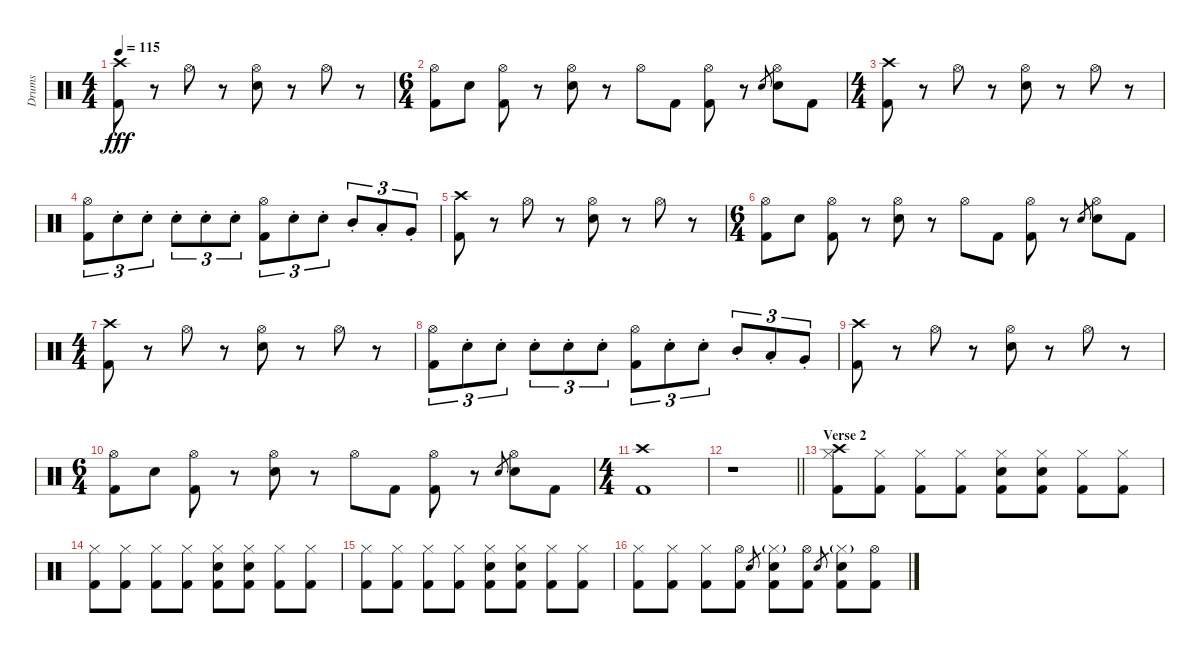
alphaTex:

\track ("Drums" "Drums") {instrument percussion}
\staff {score}
\articulation defaults
\ts (4 4)
\tempo 115
\clef neutral
\ks c
("Crash high (hit)" "Kick (hit) 2").8{dy fff} r.8 "Hi-Hat (open)".8 r.8 ("Hi-Hat (open)" "Electric Snare (hit)").8 r.8 "Hi-Hat (open)".8 r.8 |
\ts (6 4)
("Hi-Hat (open)" "Kick (hit) 2").8 "Electric Snare (hit)".8 ("Hi-Hat (open)" "Kick (hit) 2").8 r.8 ("Hi-Hat (open)" "Electric Snare (hit)").8 r.8 "Hi-Hat (open)".8 "Kick (hit) 2".8 ("Hi-Hat (open)" "Kick (hit) 2").8 r.8 "Electric Snare (hit)".8{gr} ("Hi-Hat (open)" "Electric Snare (hit)").8 "Kick (hit) 2".8 |
\ts (4 4)
("Crash high (hit)" "Kick (hit) 2").8 r.8 "Hi-Hat (open)".8 r.8 ("Hi-Hat (open)" "Electric Snare (hit)").8 r.8 "Hi-Hat (open)".8 r.8 |
("Hi-Hat (open)" "Kick (hit) 2").8{tu (3 2)} "Electric Snare (hit)"{st}.8{tu (3 2)} "Electric Snare (hit)"{st}.8{tu (3 2)} "Electric Snare (hit)"{st}.8{tu (3 2)} "Electric Snare (hit)"{st}.8{tu (3 2)} "Electric Snare (hit)"{st}.8{tu (3 2)} ("Hi-Hat (open)" "Kick (hit) 2").8{tu (3 2)} "Electric Snare (hit)"{st}.8{tu (3 2)} "Electric Snare (hit)"{st}.8{tu (3 2)} "Mid Tom (hit)"{st}.8{tu (3 2)} "Low Tom (hit)"{st}.8{tu (3 2)} "Very Low Tom (hit)"{st}.8{tu (3 2)} |
("Crash high (hit)" "Kick (hit) 2").8 r.8 "Hi-Hat (open)".8 r.8 ("Hi-Hat (open)" "Electric Snare (hit)").8 r.8 "Hi-Hat (open)".8 r.8 |
\ts (6 4)
("Hi-Hat (open)" "Kick (hit) 2").8 "Electric Snare (hit)".8 ("Hi-Hat (open)" "Kick (hit) 2").8 r.8 ("Hi-Hat (open)" "Electric Snare (hit)").8 r.8 "Hi-Hat (open)".8 "Kick (hit) 2".8 ("Hi-Hat (open)" "Kick (hit) 2").8 r.8 "Electric Snare (hit)".8{gr} ("Hi-Hat (open)" "Electric Snare (hit)").8 "Kick (hit) 2".8 |
\ts (4 4)
("Crash high (hit)" "Kick (hit) 2").8 r.8 "Hi-Hat (open)".8 r.8 ("Hi-Hat (open)" "Electric Snare (hit)").8 r.8 "Hi-Hat (open)".8 r.8 |
("Hi-Hat (open)" "Kick (hit) 2").8{tu (3 2)} "Electric Snare (hit)"{st}.8{tu (3 2)} "Electric Snare (hit)"{st}.8{tu (3 2)} "Electric Snare (hit)"{st}.8{tu (3 2)} "Electric Snare (hit)"{st}.8{tu (3 2)} "Electric Snare (hit)"{st}.8{tu (3 2)} ("Hi-Hat (open)" "Kick (hit) 2").8{tu (3 2)} "Electric Snare (hit)"{st}.8{tu (3 2)} "Electric Snare (hit)"{st}.8{tu (3 2)} "Mid Tom (hit)"{st}.8{tu (3 2)} "Low Tom (hit)"{st}.8{tu (3 2)} "Very Low Tom (hit)"{st}.8{tu (3 2)} |
("Crash high (hit)" "Kick (hit) 2").8 r.8 "Hi-Hat (open)".8 r.8 ("Hi-Hat (open)" "Electric Snare (hit)").8 r.8 "Hi-Hat (open)".8 r.8 |
\ts (6 4)
("Hi-Hat (open)" "Kick (hit) 2").8 "Electric Snare (hit)".8 ("Hi-Hat (open)" "Kick (hit) 2").8 r.8 ("Hi-Hat (open)" "Electric Snare (hit)").8 r.8 "Hi-Hat (open)".8 "Kick (hit) 2".8 ("Hi-Hat (open)" "Kick (hit) 2").8 r.8 "Electric Snare (hit)".8{gr} ("Hi-Hat (open)" "Electric Snare (hit)").8 "Kick (hit) 2".8 |
\ts (4 4)
("Crash high (hit)" "Kick (hit) 2").1 |
\barLineRight lightlight
r.1 |
\section ("" "Verse 2")
("Crash high (hit)" "Hi-Hat (closed)" "Kick (hit) 2").8 ("Hi-Hat (closed)" "Kick (hit) 2").8 ("Hi-Hat (closed)" "Kick (hit) 2").8 ("Hi-Hat (closed)" "Kick (hit) 2").8 ("Hi-Hat (closed)" "Electric Snare (hit)" "Kick (hit) 2").8 ("Hi-Hat (closed)" "Electric Snare (hit)" "Kick (hit) 2").8 ("Hi-Hat (closed)" "Kick (hit) 2").8 ("Hi-Hat (closed)" "Kick (hit) 2").8 |
("Hi-Hat (closed)" "Kick (hit) 2").8 ("Hi-Hat (closed)" "Kick (hit) 2").8 ("Hi-Hat (closed)" "Kick (hit) 2").8 ("Hi-Hat (closed)" "Kick (hit) 2").8 ("Hi-Hat (closed)" "Electric Snare (hit)" "Kick (hit) 2").8 ("Hi-Hat (closed)" "Electric Snare (hit)" "Kick (hit) 2").8 ("Hi-Hat (closed)" "Kick (hit) 2").8 ("Hi-Hat (closed)" "Kick (hit) 2").8 |
("Hi-Hat (closed)" "Kick (hit) 2").8 ("Hi-Hat (closed)" "Kick (hit) 2").8 ("Hi-Hat (closed)" "Kick (hit) 2").8 ("Hi-Hat (closed)" "Kick (hit) 2").8 ("Hi-Hat (closed)" "Electric Snare (hit)" "Kick (hit) 2").8 ("Hi-Hat (closed)" "Electric Snare (hit)" "Kick (hit) 2").8 ("Hi-Hat (closed)" "Kick (hit) 2").8 ("Hi-Hat (closed)" "Kick (hit) 2").8 |
("Hi-Hat (closed)" "Kick (hit) 2").8 ("Hi-Hat (closed)" "Kick (hit) 2").8 ("Hi-Hat (closed)" "Kick (hit) 2").8 ("Hi-Hat (open)" "Kick (hit) 2").8 "Electric Snare (hit)".8{gr} ("Hi-Hat (closed)"{g} "Electric Snare (hit)" "Kick (hit) 2").8 ("Hi-Hat (open)" "Kick (hit) 2").8 "Electric Snare (hit)".8{gr} ("Hi-Hat (closed)"{g} "Electric Snare (hit)" "Kick (hit) 2").8 ("Hi-Hat (open)" "Kick (hit) 2").8
